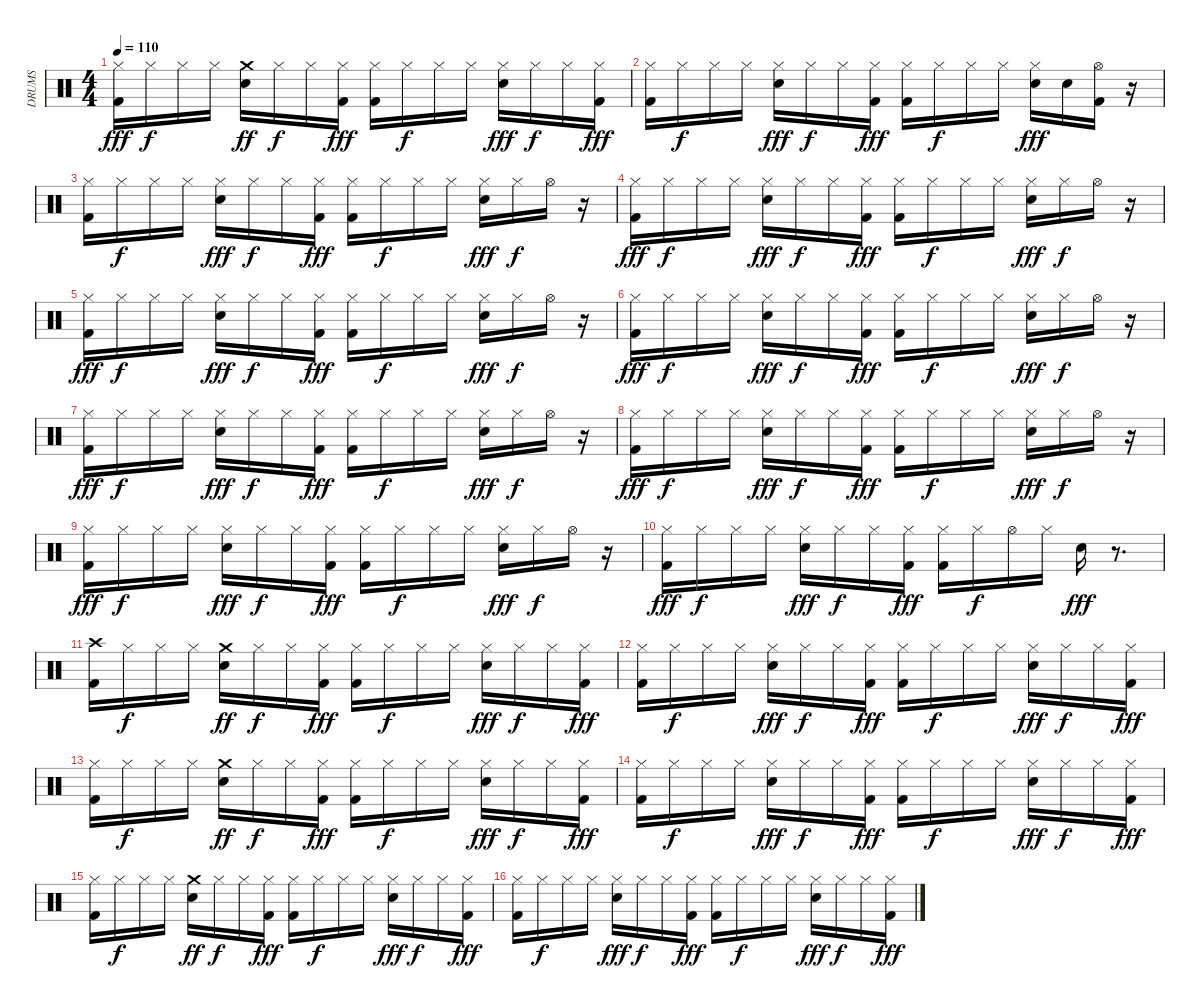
\track ("DRUMS" "DRUMS") {solo instrument percussion}
\staff {score}
\articulation defaults
\ts (4 4)
\tempo 110
\clef neutral
\ks c
("Hi-Hat (closed)" "Kick (hit) 2").16{dy fff} "Hi-Hat (closed)".16{dy f} "Hi-Hat (closed)".16 "Hi-Hat (closed)".16 ("Electric Snare (hit)" "Crash medium (hit)").16{dy ff} "Hi-Hat (closed)".16{dy f} "Hi-Hat (closed)".16 ("Hi-Hat (closed)" "Kick (hit) 2").16{dy fff} ("Kick (hit) 2" "Hi-Hat (closed)").16 "Hi-Hat (closed)".16{dy f} "Hi-Hat (closed)".16 "Hi-Hat (closed)".16 ("Electric Snare (hit)" "Hi-Hat (closed)").16{dy fff} "Hi-Hat (closed)".16{dy f} "Hi-Hat (closed)".16 ("Hi-Hat (closed)" "Kick (hit) 2").16{dy fff} |
("Kick (hit) 2" "Hi-Hat (closed)").16 "Hi-Hat (closed)".16{dy f} "Hi-Hat (closed)".16 "Hi-Hat (closed)".16 ("Electric Snare (hit)" "Hi-Hat (closed)").16{dy fff} "Hi-Hat (closed)".16{dy f} "Hi-Hat (closed)".16 ("Hi-Hat (closed)" "Kick (hit) 2").16{dy fff} ("Kick (hit) 2" "Hi-Hat (closed)").16 "Hi-Hat (closed)".16{dy f} "Hi-Hat (closed)".16 "Hi-Hat (closed)".16 ("Hi-Hat (closed)" "Electric Snare (hit)").16{dy fff} "Electric Snare (hit)".16 ("Kick (hit) 2" "Hi-Hat (open)").16 r.16 |
("Hi-Hat (closed)" "Kick (hit) 2").16 "Hi-Hat (closed)".16{dy f} "Hi-Hat (closed)".16 "Hi-Hat (closed)".16 ("Electric Snare (hit)" "Hi-Hat (closed)").16{dy fff} "Hi-Hat (closed)".16{dy f} "Hi-Hat (closed)".16 ("Hi-Hat (closed)" "Kick (hit) 2").16{dy fff} ("Kick (hit) 2" "Hi-Hat (closed)").16 "Hi-Hat (closed)".16{dy f} "Hi-Hat (closed)".16 "Hi-Hat (closed)".16 ("Electric Snare (hit)" "Hi-Hat (closed)").16{dy fff} "Hi-Hat (closed)".16{dy f} "Hi-Hat (open)".16 r.16 |
("Kick (hit) 2" "Hi-Hat (closed)").16{dy fff} "Hi-Hat (closed)".16{dy f} "Hi-Hat (closed)".16 "Hi-Hat (closed)".16 ("Electric Snare (hit)" "Hi-Hat (closed)").16{dy fff} "Hi-Hat (closed)".16{dy f} "Hi-Hat (closed)".16 ("Hi-Hat (closed)" "Kick (hit) 2").16{dy fff} ("Kick (hit) 2" "Hi-Hat (closed)").16 "Hi-Hat (closed)".16{dy f} "Hi-Hat (closed)".16 "Hi-Hat (closed)".16 ("Electric Snare (hit)" "Hi-Hat (closed)").16{dy fff} "Hi-Hat (closed)".16{dy f} "Hi-Hat (open)".16 r.16 |
("Hi-Hat (closed)" "Kick (hit) 2").16{dy fff} "Hi-Hat (closed)".16{dy f} "Hi-Hat (closed)".16 "Hi-Hat (closed)".16 ("Electric Snare (hit)" "Hi-Hat (closed)").16{dy fff} "Hi-Hat (closed)".16{dy f} "Hi-Hat (closed)".16 ("Hi-Hat (closed)" "Kick (hit) 2").16{dy fff} ("Kick (hit) 2" "Hi-Hat (closed)").16 "Hi-Hat (closed)".16{dy f} "Hi-Hat (closed)".16 "Hi-Hat (closed)".16 ("Electric Snare (hit)" "Hi-Hat (closed)").16{dy fff} "Hi-Hat (closed)".16{dy f} "Hi-Hat (open)".16 r.16 |
("Kick (hit) 2" "Hi-Hat (closed)").16{dy fff} "Hi-Hat (closed)".16{dy f} "Hi-Hat (closed)".16 "Hi-Hat (closed)".16 ("Electric Snare (hit)" "Hi-Hat (closed)").16{dy fff} "Hi-Hat (closed)".16{dy f} "Hi-Hat (closed)".16 ("Hi-Hat (closed)" "Kick (hit) 2").16{dy fff} ("Kick (hit) 2" "Hi-Hat (closed)").16 "Hi-Hat (closed)".16{dy f} "Hi-Hat (closed)".16 "Hi-Hat (closed)".16 ("Electric Snare (hit)" "Hi-Hat (closed)").16{dy fff} "Hi-Hat (closed)".16{dy f} "Hi-Hat (open)".16 r.16 |
("Hi-Hat (closed)" "Kick (hit) 2").16{dy fff} "Hi-Hat (closed)".16{dy f} "Hi-Hat (closed)".16 "Hi-Hat (closed)".16 ("Electric Snare (hit)" "Hi-Hat (closed)").16{dy fff} "Hi-Hat (closed)".16{dy f} "Hi-Hat (closed)".16 ("Hi-Hat (closed)" "Kick (hit) 2").16{dy fff} ("Kick (hit) 2" "Hi-Hat (closed)").16 "Hi-Hat (closed)".16{dy f} "Hi-Hat (closed)".16 "Hi-Hat (closed)".16 ("Electric Snare (hit)" "Hi-Hat (closed)").16{dy fff} "Hi-Hat (closed)".16{dy f} "Hi-Hat (open)".16 r.16 |
("Kick (hit) 2" "Hi-Hat (closed)").16{dy fff} "Hi-Hat (closed)".16{dy f} "Hi-Hat (closed)".16 "Hi-Hat (closed)".16 ("Electric Snare (hit)" "Hi-Hat (closed)").16{dy fff} "Hi-Hat (closed)".16{dy f} "Hi-Hat (closed)".16 ("Hi-Hat (closed)" "Kick (hit) 2").16{dy fff} ("Kick (hit) 2" "Hi-Hat (closed)").16 "Hi-Hat (closed)".16{dy f} "Hi-Hat (closed)".16 "Hi-Hat (closed)".16 ("Electric Snare (hit)" "Hi-Hat (closed)").16{dy fff} "Hi-Hat (closed)".16{dy f} "Hi-Hat (open)".16 r.16 |
("Hi-Hat (closed)" "Kick (hit) 2").16{dy fff} "Hi-Hat (closed)".16{dy f} "Hi-Hat (closed)".16 "Hi-Hat (closed)".16 ("Electric Snare (hit)" "Hi-Hat (closed)").16{dy fff} "Hi-Hat (closed)".16{dy f} "Hi-Hat (closed)".16 ("Hi-Hat (closed)" "Kick (hit) 2").16{dy fff} ("Kick (hit) 2" "Hi-Hat (closed)").16 "Hi-Hat (closed)".16{dy f} "Hi-Hat (closed)".16 "Hi-Hat (closed)".16 ("Electric Snare (hit)" "Hi-Hat (closed)").16{dy fff} "Hi-Hat (closed)".16{dy f} "Hi-Hat (open)".16 r.16 |
("Kick (hit) 2" "Hi-Hat (closed)").16{dy fff} "Hi-Hat (closed)".16{dy f} "Hi-Hat (closed)".16 "Hi-Hat (closed)".16 ("Electric Snare (hit)" "Hi-Hat (closed)").16{dy fff} "Hi-Hat (closed)".16{dy f} "Hi-Hat (closed)".16 ("Hi-Hat (closed)" "Kick (hit) 2").16{dy fff} ("Kick (hit) 2" "Hi-Hat (closed)").16 "Hi-Hat (closed)".16{dy f} "Hi-Hat (open)".16 "Hi-Hat (closed)".16 "Electric Snare (hit)".16{dy fff} r.8{d} |
("Crash high (hit)" "Kick (hit) 2").16 "Hi-Hat (closed)".16{dy f} "Hi-Hat (closed)".16 "Hi-Hat (closed)".16 ("Electric Snare (hit)" "Crash medium (hit)").16{dy ff} "Hi-Hat (closed)".16{dy f} "Hi-Hat (closed)".16 ("Hi-Hat (closed)" "Kick (hit) 2").16{dy fff} ("Kick (hit) 2" "Hi-Hat (closed)").16 "Hi-Hat (closed)".16{dy f} "Hi-Hat (closed)".16 "Hi-Hat (closed)".16 ("Electric Snare (hit)" "Hi-Hat (closed)").16{dy fff} "Hi-Hat (closed)".16{dy f} "Hi-Hat (closed)".16 ("Hi-Hat (closed)" "Kick (hit) 2").16{dy fff} |
("Kick (hit) 2" "Hi-Hat (closed)").16 "Hi-Hat (closed)".16{dy f} "Hi-Hat (closed)".16 "Hi-Hat (closed)".16 ("Electric Snare (hit)" "Hi-Hat (closed)").16{dy fff} "Hi-Hat (closed)".16{dy f} "Hi-Hat (closed)".16 ("Hi-Hat (closed)" "Kick (hit) 2").16{dy fff} ("Kick (hit) 2" "Hi-Hat (closed)").16 "Hi-Hat (closed)".16{dy f} "Hi-Hat (closed)".16 "Hi-Hat (closed)".16 ("Electric Snare (hit)" "Hi-Hat (closed)").16{dy fff} "Hi-Hat (closed)".16{dy f} "Hi-Hat (closed)".16 ("Hi-Hat (closed)" "Kick (hit) 2").16{dy fff} |
("Hi-Hat (closed)" "Kick (hit) 2").16 "Hi-Hat (closed)".16{dy f} "Hi-Hat (closed)".16 "Hi-Hat (closed)".16 ("Electric Snare (hit)" "Crash medium (hit)").16{dy ff} "Hi-Hat (closed)".16{dy f} "Hi-Hat (closed)".16 ("Hi-Hat (closed)" "Kick (hit) 2").16{dy fff} ("Kick (hit) 2" "Hi-Hat (closed)").16 "Hi-Hat (closed)".16{dy f} "Hi-Hat (closed)".16 "Hi-Hat (closed)".16 ("Electric Snare (hit)" "Hi-Hat (closed)").16{dy fff} "Hi-Hat (closed)".16{dy f} "Hi-Hat (closed)".16 ("Hi-Hat (closed)" "Kick (hit) 2").16{dy fff} |
("Kick (hit) 2" "Hi-Hat (closed)").16 "Hi-Hat (closed)".16{dy f} "Hi-Hat (closed)".16 "Hi-Hat (closed)".16 ("Electric Snare (hit)" "Hi-Hat (closed)").16{dy fff} "Hi-Hat (closed)".16{dy f} "Hi-Hat (closed)".16 ("Hi-Hat (closed)" "Kick (hit) 2").16{dy fff} ("Kick (hit) 2" "Hi-Hat (closed)").16 "Hi-Hat (closed)".16{dy f} "Hi-Hat (closed)".16 "Hi-Hat (closed)".16 ("Electric Snare (hit)" "Hi-Hat (closed)").16{dy fff} "Hi-Hat (closed)".16{dy f} "Hi-Hat (closed)".16 ("Hi-Hat (closed)" "Kick (hit) 2").16{dy fff} |
("Hi-Hat (closed)" "Kick (hit) 2").16 "Hi-Hat (closed)".16{dy f} "Hi-Hat (closed)".16 "Hi-Hat (closed)".16 ("Electric Snare (hit)" "Crash medium (hit)").16{dy ff} "Hi-Hat (closed)".16{dy f} "Hi-Hat (closed)".16 ("Hi-Hat (closed)" "Kick (hit) 2").16{dy fff} ("Kick (hit) 2" "Hi-Hat (closed)").16 "Hi-Hat (closed)".16{dy f} "Hi-Hat (closed)".16 "Hi-Hat (closed)".16 ("Electric Snare (hit)" "Hi-Hat (closed)").16{dy fff} "Hi-Hat (closed)".16{dy f} "Hi-Hat (closed)".16 ("Hi-Hat (closed)" "Kick (hit) 2").16{dy fff} |
("Kick (hit) 2" "Hi-Hat (closed)").16 "Hi-Hat (closed)".16{dy f} "Hi-Hat (closed)".16 "Hi-Hat (closed)".16 ("Electric Snare (hit)" "Hi-Hat (closed)").16{dy fff} "Hi-Hat (closed)".16{dy f} "Hi-Hat (closed)".16 ("Hi-Hat (closed)" "Kick (hit) 2").16{dy fff} ("Kick (hit) 2" "Hi-Hat (closed)").16 "Hi-Hat (closed)".16{dy f} "Hi-Hat (closed)".16 "Hi-Hat (closed)".16 ("Electric Snare (hit)" "Hi-Hat (closed)").16{dy fff} "Hi-Hat (closed)".16{dy f} "Hi-Hat (closed)".16 ("Hi-Hat (closed)" "Kick (hit) 2").16{dy fff}
